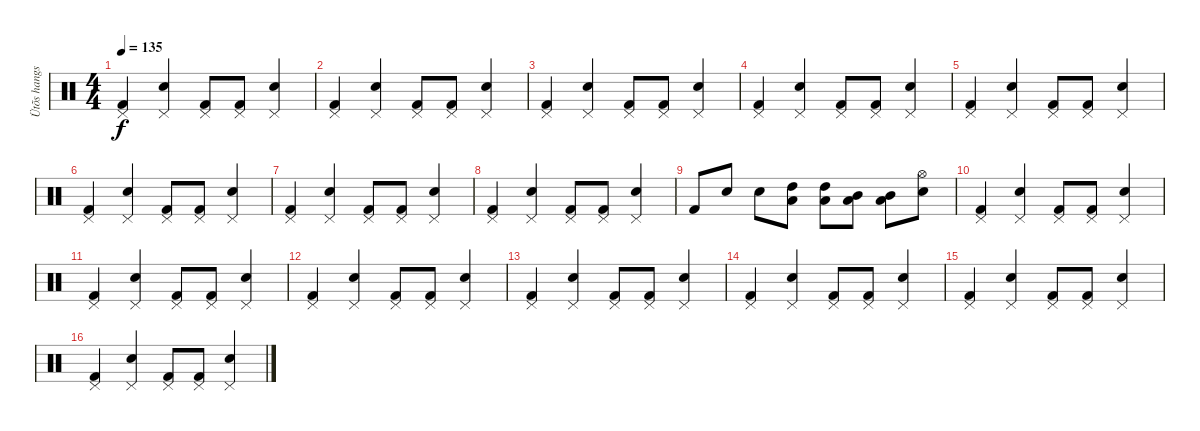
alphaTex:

\track ("Ütõs hangszer" "Ütõs hangs") {instrument percussion}
\staff {score}
\articulation defaults
\ts (4 4)
\tempo 135
\clef neutral
\ks c
("Pedal Hi-Hat (hit)" "Kick (hit) 2").4{dy f} ("Pedal Hi-Hat (hit)" "Electric Snare (hit)").4 ("Pedal Hi-Hat (hit)" "Kick (hit) 2").8 ("Pedal Hi-Hat (hit)" "Kick (hit) 2").8 ("Pedal Hi-Hat (hit)" "Electric Snare (hit)").4 |
("Pedal Hi-Hat (hit)" "Kick (hit) 2").4 ("Pedal Hi-Hat (hit)" "Electric Snare (hit)").4 ("Pedal Hi-Hat (hit)" "Kick (hit) 2").8 ("Pedal Hi-Hat (hit)" "Kick (hit) 2").8 ("Pedal Hi-Hat (hit)" "Electric Snare (hit)").4 |
("Pedal Hi-Hat (hit)" "Kick (hit) 2").4 ("Pedal Hi-Hat (hit)" "Electric Snare (hit)").4 ("Pedal Hi-Hat (hit)" "Kick (hit) 2").8 ("Pedal Hi-Hat (hit)" "Kick (hit) 2").8 ("Pedal Hi-Hat (hit)" "Electric Snare (hit)").4 |
("Pedal Hi-Hat (hit)" "Kick (hit) 2").4 ("Pedal Hi-Hat (hit)" "Electric Snare (hit)").4 ("Pedal Hi-Hat (hit)" "Kick (hit) 2").8 ("Pedal Hi-Hat (hit)" "Kick (hit) 2").8 ("Pedal Hi-Hat (hit)" "Electric Snare (hit)").4 |
("Pedal Hi-Hat (hit)" "Kick (hit) 2").4 ("Pedal Hi-Hat (hit)" "Electric Snare (hit)").4 ("Pedal Hi-Hat (hit)" "Kick (hit) 2").8 ("Pedal Hi-Hat (hit)" "Kick (hit) 2").8 ("Pedal Hi-Hat (hit)" "Electric Snare (hit)").4 |
("Pedal Hi-Hat (hit)" "Kick (hit) 2").4 ("Pedal Hi-Hat (hit)" "Electric Snare (hit)").4 ("Pedal Hi-Hat (hit)" "Kick (hit) 2").8 ("Pedal Hi-Hat (hit)" "Kick (hit) 2").8 ("Pedal Hi-Hat (hit)" "Electric Snare (hit)").4 |
("Pedal Hi-Hat (hit)" "Kick (hit) 2").4 ("Pedal Hi-Hat (hit)" "Electric Snare (hit)").4 ("Pedal Hi-Hat (hit)" "Kick (hit) 2").8 ("Pedal Hi-Hat (hit)" "Kick (hit) 2").8 ("Pedal Hi-Hat (hit)" "Electric Snare (hit)").4 |
("Pedal Hi-Hat (hit)" "Kick (hit) 2").4 ("Pedal Hi-Hat (hit)" "Electric Snare (hit)").4 ("Pedal Hi-Hat (hit)" "Kick (hit) 2").8 ("Pedal Hi-Hat (hit)" "Kick (hit) 2").8 ("Pedal Hi-Hat (hit)" "Electric Snare (hit)").4 |
"Kick (hit) 2".8 "Electric Snare (hit)".8 "Electric Snare (hit)".8 ("High Tom (hit)" "Low Tom (hit)").8 ("High Tom (hit)" "Low Tom (hit)").8 ("Low Tom (hit)" "Mid Tom (hit)").8 ("Low Tom (hit)" "Mid Tom (hit)").8 ("Hi-Hat (open)" "Electric Snare (hit)").8 |
("Pedal Hi-Hat (hit)" "Kick (hit) 2").4 ("Pedal Hi-Hat (hit)" "Electric Snare (hit)").4 ("Pedal Hi-Hat (hit)" "Kick (hit) 2").8 ("Pedal Hi-Hat (hit)" "Kick (hit) 2").8 ("Pedal Hi-Hat (hit)" "Electric Snare (hit)").4 |
("Pedal Hi-Hat (hit)" "Kick (hit) 2").4 ("Pedal Hi-Hat (hit)" "Electric Snare (hit)").4 ("Pedal Hi-Hat (hit)" "Kick (hit) 2").8 ("Pedal Hi-Hat (hit)" "Kick (hit) 2").8 ("Pedal Hi-Hat (hit)" "Electric Snare (hit)").4 |
("Pedal Hi-Hat (hit)" "Kick (hit) 2").4 ("Pedal Hi-Hat (hit)" "Electric Snare (hit)").4 ("Pedal Hi-Hat (hit)" "Kick (hit) 2").8 ("Pedal Hi-Hat (hit)" "Kick (hit) 2").8 ("Pedal Hi-Hat (hit)" "Electric Snare (hit)").4 |
("Pedal Hi-Hat (hit)" "Kick (hit) 2").4 ("Pedal Hi-Hat (hit)" "Electric Snare (hit)").4 ("Pedal Hi-Hat (hit)" "Kick (hit) 2").8 ("Pedal Hi-Hat (hit)" "Kick (hit) 2").8 ("Pedal Hi-Hat (hit)" "Electric Snare (hit)").4 |
("Pedal Hi-Hat (hit)" "Kick (hit) 2").4 ("Pedal Hi-Hat (hit)" "Electric Snare (hit)").4 ("Pedal Hi-Hat (hit)" "Kick (hit) 2").8 ("Pedal Hi-Hat (hit)" "Kick (hit) 2").8 ("Pedal Hi-Hat (hit)" "Electric Snare (hit)").4 |
("Pedal Hi-Hat (hit)" "Kick (hit) 2").4 ("Pedal Hi-Hat (hit)" "Electric Snare (hit)").4 ("Pedal Hi-Hat (hit)" "Kick (hit) 2").8 ("Pedal Hi-Hat (hit)" "Kick (hit) 2").8 ("Pedal Hi-Hat (hit)" "Electric Snare (hit)").4 |
("Pedal Hi-Hat (hit)" "Kick (hit) 2").4 ("Pedal Hi-Hat (hit)" "Electric Snare (hit)").4 ("Pedal Hi-Hat (hit)" "Kick (hit) 2").8 ("Pedal Hi-Hat (hit)" "Kick (hit) 2").8 ("Pedal Hi-Hat (hit)" "Electric Snare (hit)").4
